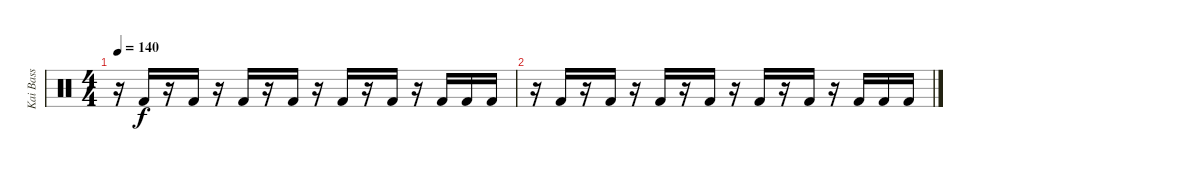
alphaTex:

\track ("Kai Bass" "Kai Bass") {instrument percussion}
\staff {score}
\articulation defaults
\ts (4 4)
\tempo 140
\clef neutral
\ks c
r.16{dy f} "Kick (hit) 2".16 r.16 "Kick (hit) 2".16 r.16 "Kick (hit) 2".16 r.16 "Kick (hit) 2".16 r.16 "Kick (hit) 2".16 r.16 "Kick (hit) 2".16 r.16 "Kick (hit) 2".16 "Kick (hit) 2".16 "Kick (hit) 2".16 |
r.16 "Kick (hit) 2".16 r.16 "Kick (hit) 2".16 r.16 "Kick (hit) 2".16 r.16 "Kick (hit) 2".16 r.16 "Kick (hit) 2".16 r.16 "Kick (hit) 2".16 r.16 "Kick (hit) 2".16 "Kick (hit) 2".16 "Kick (hit) 2".16
